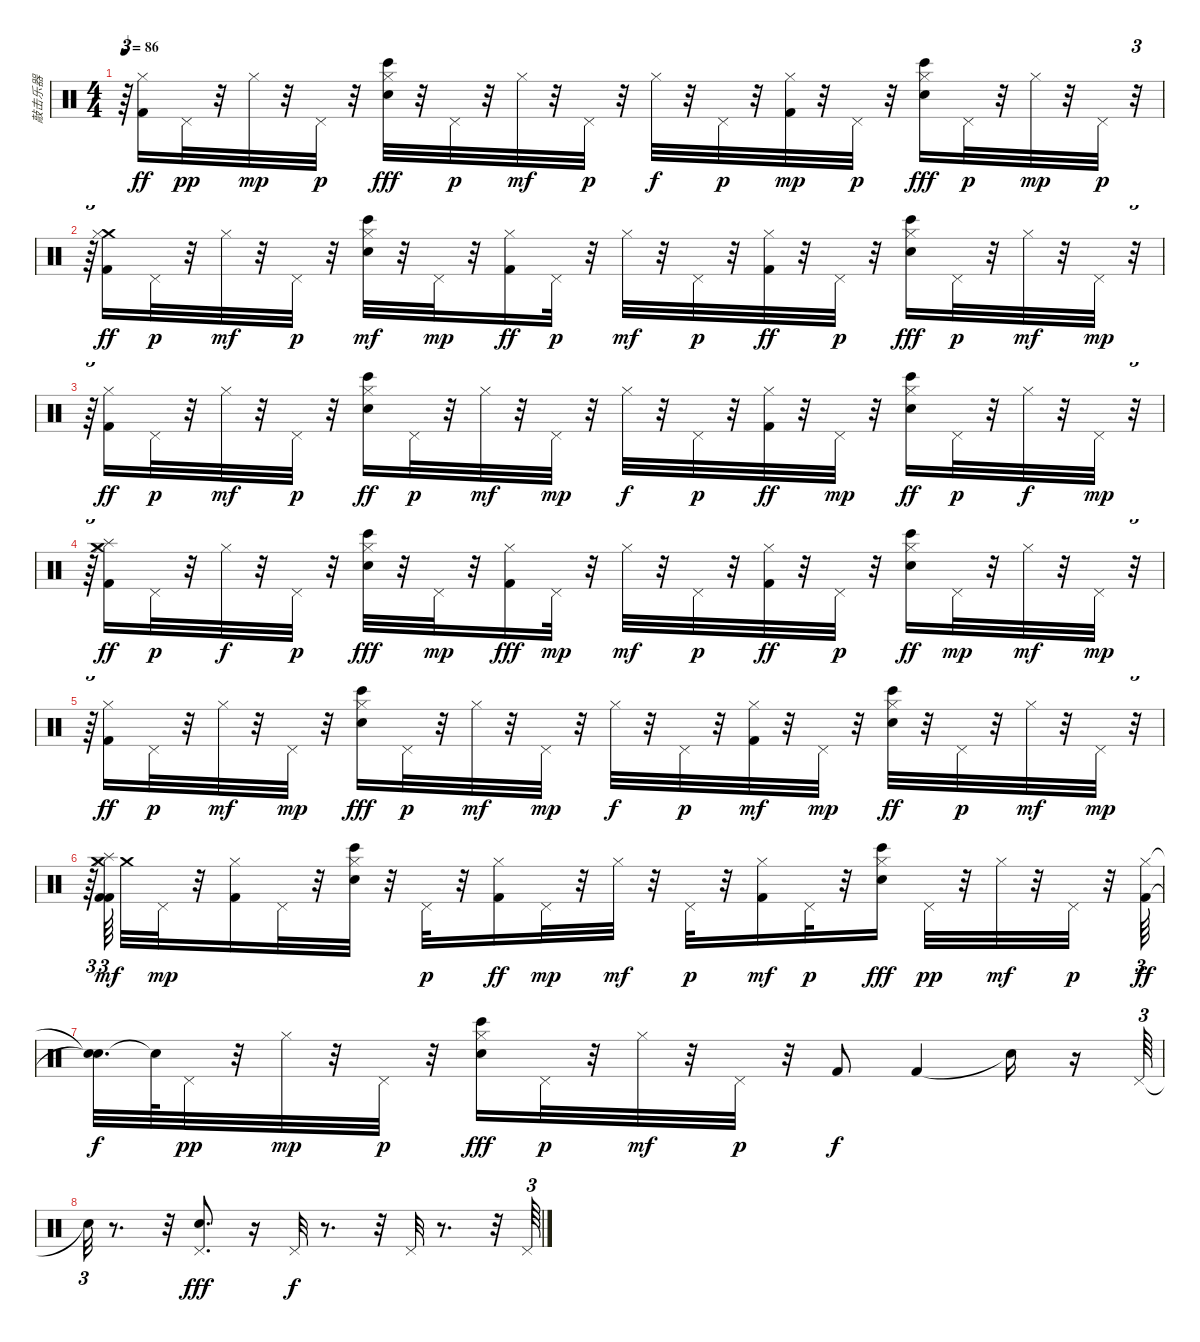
\track ("敲击乐器" "敲击乐器") {instrument percussion}
\staff {score}
\articulation defaults
\ts (4 4)
\tempo 86
\clef neutral
\ks c
r.64{tu (3 2) dy p} ("Hi-Hat (closed)" "Kick (hit) 2").16{dy ff} "Pedal Hi-Hat (hit)".32{dy pp} r.32 "Hi-Hat (closed)".32{dy mp} r.32 "Pedal Hi-Hat (hit)".32{dy p} r.32 ("Hi-Hat (closed)" "Electric Snare (hit)" "Bongo High (hit)").32{dy fff} r.32 "Pedal Hi-Hat (hit)".32{dy p} r.32 "Hi-Hat (closed)".32{dy mf} r.32 "Pedal Hi-Hat (hit)".32{dy p} r.32 "Hi-Hat (closed)".32{dy f} r.32 "Pedal Hi-Hat (hit)".32{dy p} r.32 ("Hi-Hat (closed)" "Kick (hit) 2").32{dy mp} r.32 "Pedal Hi-Hat (hit)".32{dy p} r.32 ("Hi-Hat (closed)" "Electric Snare (hit)" "Bongo High (hit)").16{dy fff} "Pedal Hi-Hat (hit)".32{dy p} r.32 "Hi-Hat (closed)".32{dy mp} r.32 "Pedal Hi-Hat (hit)".32{dy p} r.32{tu (3 2)} |
r.64{tu (3 2)} ("Crash medium (hit)" "Hi-Hat (closed)" "Kick (hit) 2").16{dy ff} "Pedal Hi-Hat (hit)".32{dy p} r.32 "Hi-Hat (closed)".32{dy mf} r.32 "Pedal Hi-Hat (hit)".32{dy p} r.32 ("Hi-Hat (closed)" "Electric Snare (hit)" "Bongo High (hit)").32{dy mf} r.32 "Pedal Hi-Hat (hit)".32{dy mp} r.32 ("Hi-Hat (closed)" "Kick (hit) 2").16{dy ff} "Pedal Hi-Hat (hit)".32{dy p} r.32 "Hi-Hat (closed)".32{dy mf} r.32 "Pedal Hi-Hat (hit)".32{dy p} r.32 ("Hi-Hat (closed)" "Kick (hit) 2").32{dy ff} r.32 "Pedal Hi-Hat (hit)".32{dy p} r.32 ("Hi-Hat (closed)" "Electric Snare (hit)" "Bongo High (hit)").16{dy fff} "Pedal Hi-Hat (hit)".32{dy p} r.32 "Hi-Hat (closed)".32{dy mf} r.32 "Pedal Hi-Hat (hit)".32{dy mp} r.32{tu (3 2)} |
r.64{tu (3 2)} ("Hi-Hat (closed)" "Kick (hit) 2").16{dy ff} "Pedal Hi-Hat (hit)".32{dy p} r.32 "Hi-Hat (closed)".32{dy mf} r.32 "Pedal Hi-Hat (hit)".32{dy p} r.32 ("Hi-Hat (closed)" "Electric Snare (hit)" "Bongo High (hit)").16{dy ff} "Pedal Hi-Hat (hit)".32{dy p} r.32 "Hi-Hat (closed)".32{dy mf} r.32 "Pedal Hi-Hat (hit)".32{dy mp} r.32 "Hi-Hat (closed)".32{dy f} r.32 "Pedal Hi-Hat (hit)".32{dy p} r.32 ("Hi-Hat (closed)" "Kick (hit) 2").32{dy ff} r.32 "Pedal Hi-Hat (hit)".32{dy mp} r.32 ("Hi-Hat (closed)" "Electric Snare (hit)" "Bongo High (hit)").16{dy ff} "Pedal Hi-Hat (hit)".32{dy p} r.32 "Hi-Hat (closed)".32{dy f} r.32 "Pedal Hi-Hat (hit)".32{dy mp} r.32{tu (3 2)} |
r.64{tu (3 2)} ("Splash (hit)" "Crash medium (hit)" "Hi-Hat (closed)" "Kick (hit) 2").16{dy ff} "Pedal Hi-Hat (hit)".32{dy p} r.32 "Hi-Hat (closed)".32{dy f} r.32 "Pedal Hi-Hat (hit)".32{dy p} r.32 ("Hi-Hat (closed)" "Bongo High (hit)" "Electric Snare (hit)").32{dy fff} r.32 "Pedal Hi-Hat (hit)".32{dy mp} r.32 ("Hi-Hat (closed)" "Kick (hit) 2").16{dy fff} "Pedal Hi-Hat (hit)".32{dy mp} r.32 "Hi-Hat (closed)".32{dy mf} r.32 "Pedal Hi-Hat (hit)".32{dy p} r.32 ("Hi-Hat (closed)" "Kick (hit) 2").32{dy ff} r.32 "Pedal Hi-Hat (hit)".32{dy p} r.32 ("Hi-Hat (closed)" "Bongo High (hit)" "Electric Snare (hit)").16{dy ff} "Pedal Hi-Hat (hit)".32{dy mp} r.32 "Hi-Hat (closed)".32{dy mf} r.32 "Pedal Hi-Hat (hit)".32{dy mp} r.32{tu (3 2)} |
r.64{tu (3 2)} ("Hi-Hat (closed)" "Kick (hit) 2").16{dy ff} "Pedal Hi-Hat (hit)".32{dy p} r.32 "Hi-Hat (closed)".32{dy mf} r.32 "Pedal Hi-Hat (hit)".32{dy mp} r.32 ("Hi-Hat (closed)" "Bongo High (hit)" "Electric Snare (hit)").16{dy fff} "Pedal Hi-Hat (hit)".32{dy p} r.32 "Hi-Hat (closed)".32{dy mf} r.32 "Pedal Hi-Hat (hit)".32{dy mp} r.32 "Hi-Hat (closed)".32{dy f} r.32 "Pedal Hi-Hat (hit)".32{dy p} r.32 ("Hi-Hat (closed)" "Kick (hit) 2").32{dy mf} r.32 "Pedal Hi-Hat (hit)".32{dy mp} r.32 ("Hi-Hat (closed)" "Electric Snare (hit)" "Bongo High (hit)").32{dy ff} r.32 "Pedal Hi-Hat (hit)".32{dy p} r.32 "Hi-Hat (closed)".32{dy mf} r.32 "Pedal Hi-Hat (hit)".32{dy mp} r.32{tu (3 2)} |
r.64{tu (3 2)} ("Splash (hit)" "Crash medium (hit)" "Hi-Hat (closed)" "Kick (hit) 2" "Kick (hit) 2").64{tu (3 2) dy mf beam splitsecondary} "Crash medium (hit)".32 "Pedal Hi-Hat (hit)".32{dy mp} r.32 ("Hi-Hat (closed)" "Kick (hit) 2").16 "Pedal Hi-Hat (hit)".32 r.32 ("Hi-Hat (closed)" "Electric Snare (hit)" "Bongo High (hit)").32 r.32 "Pedal Hi-Hat (hit)".32{dy p} r.32 ("Hi-Hat (closed)" "Kick (hit) 2").16{dy ff} "Pedal Hi-Hat (hit)".32{dy mp} r.32 "Hi-Hat (closed)".32{dy mf} r.32 "Pedal Hi-Hat (hit)".32{dy p} r.32 ("Hi-Hat (closed)" "Kick (hit) 2").16{dy mf} "Pedal Hi-Hat (hit)".32{dy p} r.32 ("Hi-Hat (closed)" "Electric Snare (hit)" "Bongo High (hit)").16{dy fff} "Pedal Hi-Hat (hit)".32{dy pp} r.32 "Hi-Hat (closed)".32{dy mf} r.32 "Pedal Hi-Hat (hit)".32{dy p} r.32 ("Hi-Hat (closed)" "Kick (hit) 2").64{tu (3 2) dy ff} |
("Snare (hit)"{t} "Snare (hit)"{t}).32{d dy f} "Snare (hit)"{t}.64 "Pedal Hi-Hat (hit)".32{dy pp} r.32 "Hi-Hat (closed)".32{dy mp} r.32 "Pedal Hi-Hat (hit)".32{dy p} r.32 ("Hi-Hat (closed)" "Electric Snare (hit)" "Bongo High (hit)").16{dy fff} "Pedal Hi-Hat (hit)".32{dy p} r.32 "Hi-Hat (closed)".32{dy mf} r.32 "Pedal Hi-Hat (hit)".32{dy p} r.32 "Kick (hit) 2".8{dy f} "Kick (hit) 2".4 "Snare (hit)"{t}.16 r.16 "Pedal Hi-Hat (hit)".64{tu (3 2)} |
"Snare (hit)"{t}.32{tu (3 2)} r.8{d} r.32 ("Pedal Hi-Hat (hit)" "Snare (hit)").8{d dy fff} r.16 "Pedal Hi-Hat (hit)".32{dy f} r.8{d} r.32 "Pedal Hi-Hat (hit)".32 r.8{d} r.32 "Pedal Hi-Hat (hit)".64{tu (3 2)}
